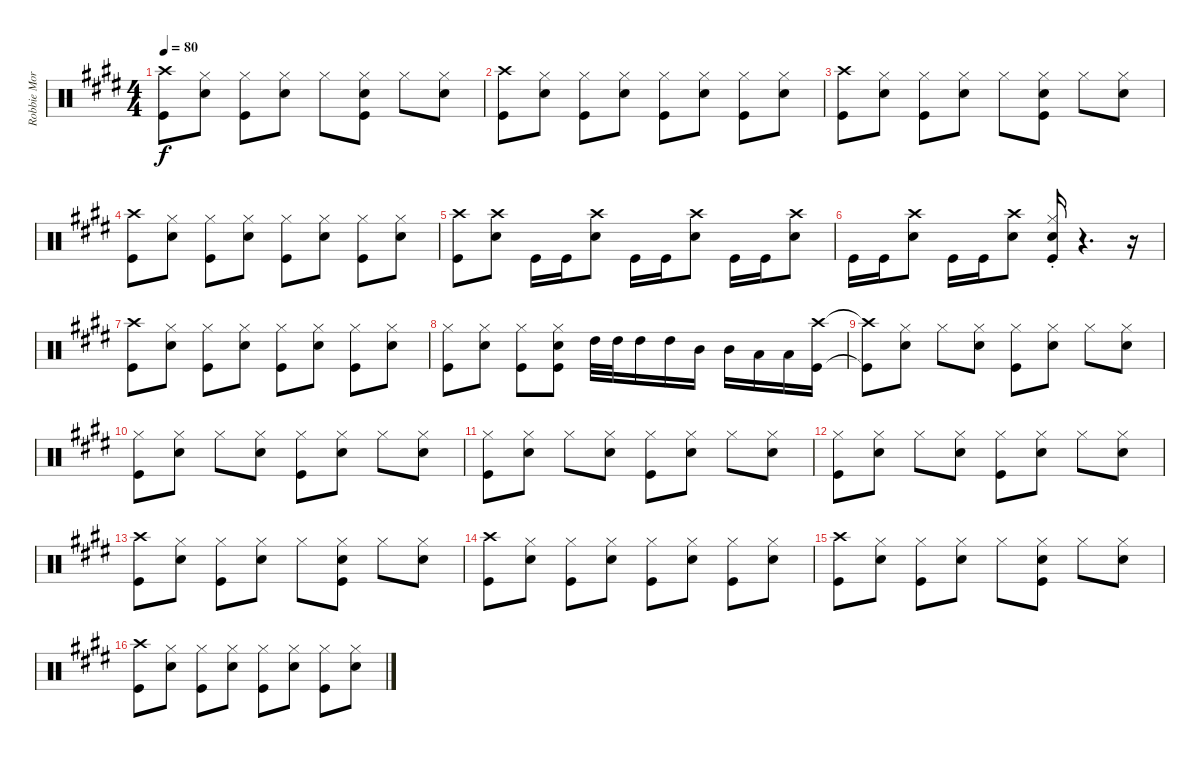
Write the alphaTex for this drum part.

\track ("Robbie Morris Drums" "Robbie Mor") {instrument percussion}
\staff {score}
\articulation defaults
\ts (4 4)
\tempo 80
\clef neutral
\ks e
("Crash high (hit)" "Kick (hit)").8{dy f} ("Hi-Hat (closed)" "Snare (hit) 2").8 ("Hi-Hat (closed)" "Kick (hit)").8 ("Hi-Hat (closed)" "Snare (hit) 2").8 "Hi-Hat (closed)".8 ("Hi-Hat (closed)" "Snare (hit) 2" "Kick (hit)").8 "Hi-Hat (closed)".8 ("Hi-Hat (closed)" "Snare (hit) 2").8 |
("Crash high (hit)" "Kick (hit)").8 ("Hi-Hat (closed)" "Snare (hit) 2").8 ("Hi-Hat (closed)" "Kick (hit)").8 ("Hi-Hat (closed)" "Snare (hit) 2").8 ("Hi-Hat (closed)" "Kick (hit)").8 ("Hi-Hat (closed)" "Snare (hit) 2").8 ("Hi-Hat (closed)" "Kick (hit)").8 ("Hi-Hat (closed)" "Snare (hit) 2").8 |
("Crash high (hit)" "Kick (hit)").8 ("Hi-Hat (closed)" "Snare (hit) 2").8 ("Hi-Hat (closed)" "Kick (hit)").8 ("Hi-Hat (closed)" "Snare (hit) 2").8 "Hi-Hat (closed)".8 ("Hi-Hat (closed)" "Snare (hit) 2" "Kick (hit)").8 "Hi-Hat (closed)".8 ("Hi-Hat (closed)" "Snare (hit) 2").8 |
("Crash high (hit)" "Kick (hit)").8 ("Hi-Hat (closed)" "Snare (hit) 2").8 ("Hi-Hat (closed)" "Kick (hit)").8 ("Hi-Hat (closed)" "Snare (hit) 2").8 ("Hi-Hat (closed)" "Kick (hit)").8 ("Hi-Hat (closed)" "Snare (hit) 2").8 ("Hi-Hat (closed)" "Kick (hit)").8 ("Hi-Hat (closed)" "Snare (hit) 2").8 |
("Crash high (hit)" "Kick (hit)").8 ("Crash high (hit)" "Snare (hit) 2").8 "Kick (hit)".16 "Kick (hit)".16 ("Crash high (hit)" "Snare (hit) 2").8 "Kick (hit)".16 "Kick (hit)".16 ("Crash high (hit)" "Snare (hit) 2").8 "Kick (hit)".16 "Kick (hit)".16 ("Crash high (hit)" "Snare (hit) 2").8 |
"Kick (hit)".16 "Kick (hit)".16 ("Crash high (hit)" "Snare (hit) 2").8 "Kick (hit)".16 "Kick (hit)".16 ("Crash high (hit)" "Snare (hit) 2").8 ("Hi-Hat (closed)" "Snare (hit) 2" "Kick (hit)"{st}).16 r.4{d} r.16 |
("Crash high (hit)" "Kick (hit)").8 ("Hi-Hat (closed)" "Snare (hit) 2").8 ("Hi-Hat (closed)" "Kick (hit)").8 ("Hi-Hat (closed)" "Snare (hit) 2").8 ("Hi-Hat (closed)" "Kick (hit)").8 ("Hi-Hat (closed)" "Snare (hit) 2").8 ("Hi-Hat (closed)" "Kick (hit)").8 ("Hi-Hat (closed)" "Snare (hit) 2").8 |
("Hi-Hat (closed)" "Kick (hit)").8 ("Hi-Hat (closed)" "Snare (hit) 2").8 ("Hi-Hat (closed)" "Kick (hit)").8 ("Hi-Hat (closed)" "Snare (hit) 2" "Kick (hit)").8 "High Tom (hit)".32 "High Tom (hit)".32 "High Tom (hit)".16 "High Tom (hit)".16 "Mid Tom (hit)".16 "Mid Tom (hit)".16 "Low Tom (hit)".16 "Low Tom (hit)".16 ("Crash high (hit)" "Kick (hit)").16 |
("Crash high (hit)"{t} "Kick (hit)"{t}).8 ("Hi-Hat (closed)" "Snare (hit) 2").8 "Hi-Hat (closed)".8 ("Hi-Hat (closed)" "Snare (hit) 2").8 ("Hi-Hat (closed)" "Kick (hit)").8 ("Hi-Hat (closed)" "Snare (hit) 2").8 "Hi-Hat (closed)".8 ("Hi-Hat (closed)" "Snare (hit) 2").8 |
("Hi-Hat (closed)" "Kick (hit)").8 ("Hi-Hat (closed)" "Snare (hit) 2").8 "Hi-Hat (closed)".8 ("Hi-Hat (closed)" "Snare (hit) 2").8 ("Hi-Hat (closed)" "Kick (hit)").8 ("Hi-Hat (closed)" "Snare (hit) 2").8 "Hi-Hat (closed)".8 ("Hi-Hat (closed)" "Snare (hit) 2").8 |
("Hi-Hat (closed)" "Kick (hit)").8 ("Hi-Hat (closed)" "Snare (hit) 2").8 "Hi-Hat (closed)".8 ("Hi-Hat (closed)" "Snare (hit) 2").8 ("Hi-Hat (closed)" "Kick (hit)").8 ("Hi-Hat (closed)" "Snare (hit) 2").8 "Hi-Hat (closed)".8 ("Hi-Hat (closed)" "Snare (hit) 2").8 |
("Hi-Hat (closed)" "Kick (hit)").8 ("Hi-Hat (closed)" "Snare (hit) 2").8 "Hi-Hat (closed)".8 ("Hi-Hat (closed)" "Snare (hit) 2").8 ("Hi-Hat (closed)" "Kick (hit)").8 ("Hi-Hat (closed)" "Snare (hit) 2").8 "Hi-Hat (closed)".8 ("Hi-Hat (closed)" "Snare (hit) 2").8 |
("Crash high (hit)" "Kick (hit)").8 ("Hi-Hat (closed)" "Snare (hit) 2").8 ("Hi-Hat (closed)" "Kick (hit)").8 ("Hi-Hat (closed)" "Snare (hit) 2").8 "Hi-Hat (closed)".8 ("Hi-Hat (closed)" "Snare (hit) 2" "Kick (hit)").8 "Hi-Hat (closed)".8 ("Hi-Hat (closed)" "Snare (hit) 2").8 |
("Crash high (hit)" "Kick (hit)").8 ("Hi-Hat (closed)" "Snare (hit) 2").8 ("Hi-Hat (closed)" "Kick (hit)").8 ("Hi-Hat (closed)" "Snare (hit) 2").8 ("Hi-Hat (closed)" "Kick (hit)").8 ("Hi-Hat (closed)" "Snare (hit) 2").8 ("Hi-Hat (closed)" "Kick (hit)").8 ("Hi-Hat (closed)" "Snare (hit) 2").8 |
("Crash high (hit)" "Kick (hit)").8 ("Hi-Hat (closed)" "Snare (hit) 2").8 ("Hi-Hat (closed)" "Kick (hit)").8 ("Hi-Hat (closed)" "Snare (hit) 2").8 "Hi-Hat (closed)".8 ("Hi-Hat (closed)" "Snare (hit) 2" "Kick (hit)").8 "Hi-Hat (closed)".8 ("Hi-Hat (closed)" "Snare (hit) 2").8 |
("Crash high (hit)" "Kick (hit)").8 ("Hi-Hat (closed)" "Snare (hit) 2").8 ("Hi-Hat (closed)" "Kick (hit)").8 ("Hi-Hat (closed)" "Snare (hit) 2").8 ("Hi-Hat (closed)" "Kick (hit)").8 ("Hi-Hat (closed)" "Snare (hit) 2").8 ("Hi-Hat (closed)" "Kick (hit)").8 ("Hi-Hat (closed)" "Snare (hit) 2").8
